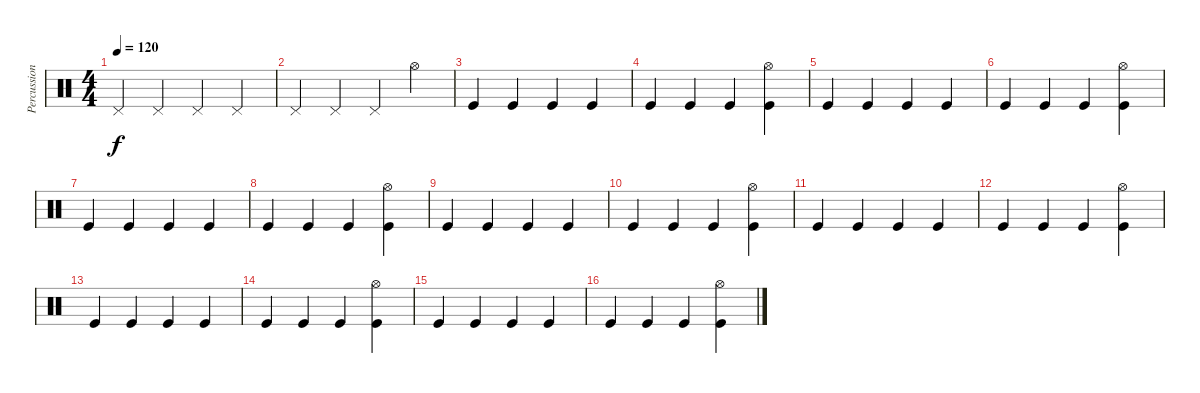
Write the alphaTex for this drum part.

\track ("Percussion" "Percussion") {instrument percussion}
\staff {score}
\articulation defaults
\ts (4 4)
\tempo 120
\clef neutral
\ks c "Pedal Hi-Hat (hit)".4{dy f} "Pedal Hi-Hat (hit)".4 "Pedal Hi-Hat (hit)".4 "Pedal Hi-Hat (hit)".4
|
"Pedal Hi-Hat (hit)".4 "Pedal Hi-Hat (hit)".4 "Pedal Hi-Hat (hit)".4 "Hi-Hat (open)".4 |
"Kick (hit)".4 "Kick (hit)".4 "Kick (hit)".4 "Kick (hit)".4 |
"Kick (hit)".4 "Kick (hit)".4 "Kick (hit)".4 ("Hi-Hat (open)" "Kick (hit)").4 |
"Kick (hit)".4 "Kick (hit)".4 "Kick (hit)".4 "Kick (hit)".4 |
"Kick (hit)".4 "Kick (hit)".4 "Kick (hit)".4 ("Hi-Hat (open)" "Kick (hit)").4 |
"Kick (hit)".4 "Kick (hit)".4 "Kick (hit)".4 "Kick (hit)".4 |
"Kick (hit)".4 "Kick (hit)".4 "Kick (hit)".4 ("Hi-Hat (open)" "Kick (hit)").4 |
"Kick (hit)".4 "Kick (hit)".4 "Kick (hit)".4 "Kick (hit)".4 |
"Kick (hit)".4 "Kick (hit)".4 "Kick (hit)".4 ("Hi-Hat (open)" "Kick (hit)").4 |
"Kick (hit)".4 "Kick (hit)".4 "Kick (hit)".4 "Kick (hit)".4 |
"Kick (hit)".4 "Kick (hit)".4 "Kick (hit)".4 ("Hi-Hat (open)" "Kick (hit)").4 |
"Kick (hit)".4 "Kick (hit)".4 "Kick (hit)".4 "Kick (hit)".4 |
"Kick (hit)".4 "Kick (hit)".4 "Kick (hit)".4 ("Hi-Hat (open)" "Kick (hit)").4 |
"Kick (hit)".4 "Kick (hit)".4 "Kick (hit)".4 "Kick (hit)".4 |
"Kick (hit)".4 "Kick (hit)".4 "Kick (hit)".4 ("Hi-Hat (open)" "Kick (hit)").4
